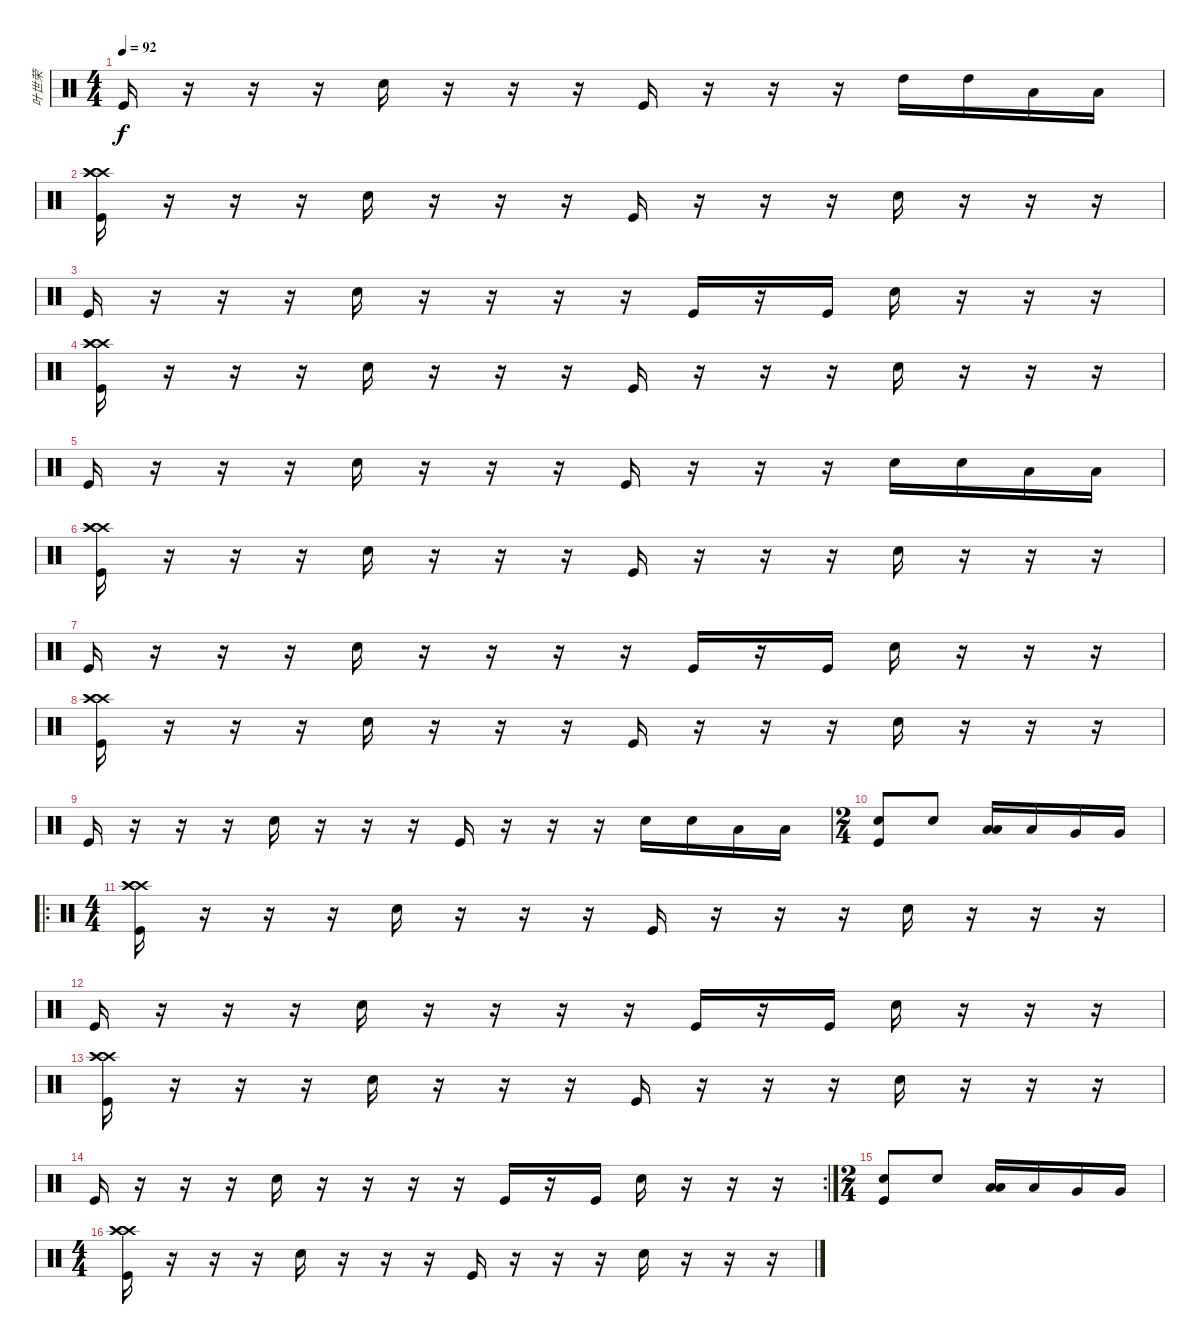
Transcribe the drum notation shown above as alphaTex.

\track ("叶世荣" "叶世荣") {instrument percussion}
\staff {score}
\articulation defaults
\ts (4 4)
\tempo 92
\clef neutral
\ks c "Kick (hit)".16{dy f}
r.16 r.16 r.16 "Electric Snare (hit)".16 r.16 r.16 r.16 "Kick (hit)".16 r.16 r.16 r.16 "High Tom (hit)".16 "High Tom (hit)".16 "Low Tom (hit)".16 "Low Tom (hit)".16 |
("Kick (hit)" "Crash high (hit)" "Crash high (hit)" "Crash high (hit)").16 r.16 r.16 r.16 "Electric Snare (hit)".16 r.16 r.16 r.16 "Kick (hit)".16 r.16 r.16 r.16 "Electric Snare (hit)".16 r.16 r.16 r.16 |
"Kick (hit)".16 r.16 r.16 r.16 "Electric Snare (hit)".16 r.16 r.16 r.16 r.16 "Kick (hit)".16 r.16 "Kick (hit)".16 "Electric Snare (hit)".16 r.16 r.16 r.16 |
("Kick (hit)" "Crash high (hit)" "Crash high (hit)" "Crash high (hit)").16 r.16 r.16 r.16 "Electric Snare (hit)".16 r.16 r.16 r.16 "Kick (hit)".16 r.16 r.16 r.16 "Electric Snare (hit)".16 r.16 r.16 r.16 |
"Kick (hit)".16 r.16 r.16 r.16 "Electric Snare (hit)".16 r.16 r.16 r.16 "Kick (hit)".16 r.16 r.16 r.16 "Electric Snare (hit)".16 "Electric Snare (hit)".16 "Low Tom (hit)".16 "Low Tom (hit)".16 |
("Kick (hit)" "Crash high (hit)" "Crash high (hit)" "Crash high (hit)").16 r.16 r.16 r.16 "Electric Snare (hit)".16 r.16 r.16 r.16 "Kick (hit)".16 r.16 r.16 r.16 "Electric Snare (hit)".16 r.16 r.16 r.16 |
"Kick (hit)".16 r.16 r.16 r.16 "Electric Snare (hit)".16 r.16 r.16 r.16 r.16 "Kick (hit)".16 r.16 "Kick (hit)".16 "Electric Snare (hit)".16 r.16 r.16 r.16 |
("Kick (hit)" "Crash high (hit)" "Crash high (hit)" "Crash high (hit)").16 r.16 r.16 r.16 "Electric Snare (hit)".16 r.16 r.16 r.16 "Kick (hit)".16 r.16 r.16 r.16 "Electric Snare (hit)".16 r.16 r.16 r.16 |
"Kick (hit)".16 r.16 r.16 r.16 "Electric Snare (hit)".16 r.16 r.16 r.16 "Kick (hit)".16 r.16 r.16 r.16 "Electric Snare (hit)".16 "Electric Snare (hit)".16 "Low Tom (hit)".16 "Low Tom (hit)".16 |
\ts (2 4)
("Electric Snare (hit)" "Kick (hit)").8 "Electric Snare (hit)".8 ("Low Tom (hit)" "Low Tom (hit)").16 "Low Tom (hit)".16 "Very Low Tom (hit)".16 "Very Low Tom (hit)".16 |
\ro
\ts (4 4)
("Kick (hit)" "Crash high (hit)" "Crash high (hit)" "Crash high (hit)").16 r.16 r.16 r.16 "Electric Snare (hit)".16 r.16 r.16 r.16 "Kick (hit)".16 r.16 r.16 r.16 "Electric Snare (hit)".16 r.16 r.16 r.16 |
"Kick (hit)".16 r.16 r.16 r.16 "Electric Snare (hit)".16 r.16 r.16 r.16 r.16 "Kick (hit)".16 r.16 "Kick (hit)".16 "Electric Snare (hit)".16 r.16 r.16 r.16 |
("Kick (hit)" "Crash high (hit)" "Crash high (hit)" "Crash high (hit)").16 r.16 r.16 r.16 "Electric Snare (hit)".16 r.16 r.16 r.16 "Kick (hit)".16 r.16 r.16 r.16 "Electric Snare (hit)".16 r.16 r.16 r.16 |
\rc 2 "Kick (hit)".16
r.16 r.16 r.16 "Electric Snare (hit)".16 r.16 r.16 r.16 r.16 "Kick (hit)".16 r.16 "Kick (hit)".16 "Electric Snare (hit)".16 r.16 r.16 r.16 |
\ts (2 4)
("Electric Snare (hit)" "Kick (hit)").8 "Electric Snare (hit)".8 ("Low Tom (hit)" "Low Tom (hit)").16 "Low Tom (hit)".16 "Very Low Tom (hit)".16 "Very Low Tom (hit)".16 |
\ts (4 4)
("Kick (hit)" "Crash high (hit)" "Crash high (hit)" "Crash high (hit)").16 r.16 r.16 r.16 "Electric Snare (hit)".16 r.16 r.16 r.16 "Kick (hit)".16 r.16 r.16 r.16 "Electric Snare (hit)".16 r.16 r.16 r.16
